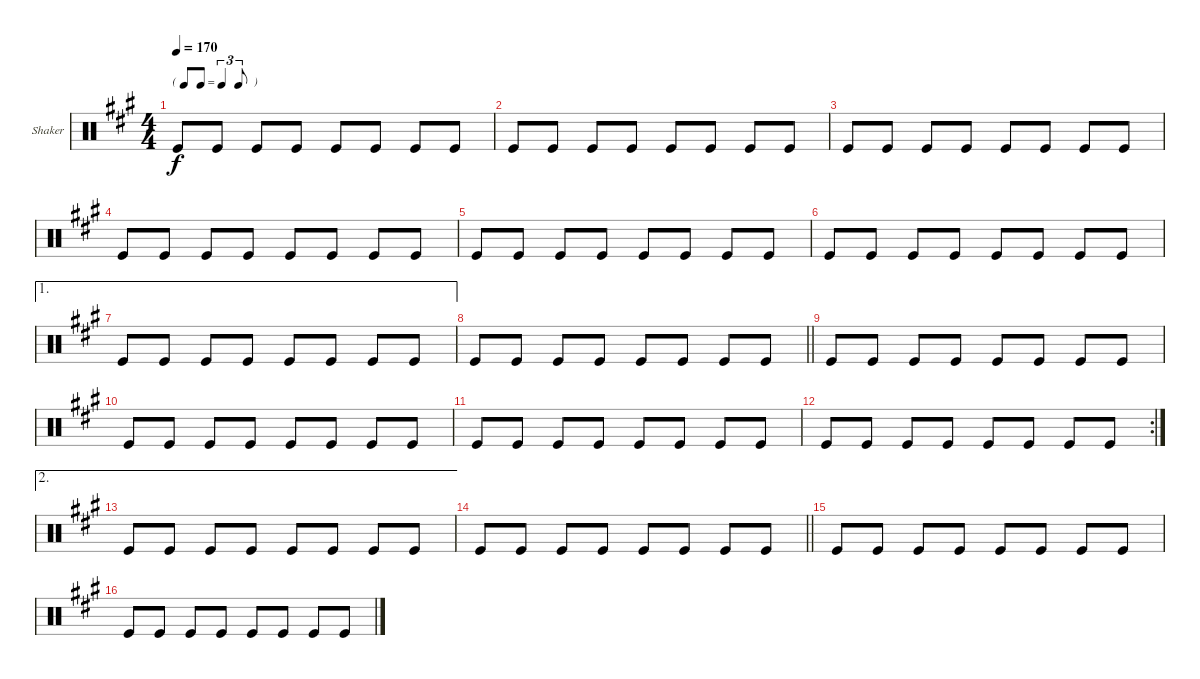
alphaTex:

\bracketExtendMode groupsimilarinstruments
\firstSystemTrackNameOrientation horizontal
\otherSystemsTrackNameOrientation horizontal
\track ("Shaker" "Shaker") {instrument percussion}
\staff {score}
\articulation defaults
\ts (4 4)
\tf triplet8th
\tempo 170
\clef neutral
\scale
0.333333
\ks a "Kick (hit)".8{dy f} "Kick (hit)".8 "Kick (hit)".8 "Kick (hit)".8 "Kick (hit)".8 "Kick (hit)".8 "Kick (hit)".8 "Kick (hit)".8
|
\scale
0.333333 "Kick (hit)".8 "Kick (hit)".8 "Kick (hit)".8 "Kick (hit)".8 "Kick (hit)".8 "Kick (hit)".8 "Kick (hit)".8 "Kick (hit)".8 |
\scale
0.333333 "Kick (hit)".8 "Kick (hit)".8 "Kick (hit)".8 "Kick (hit)".8 "Kick (hit)".8 "Kick (hit)".8 "Kick (hit)".8 "Kick (hit)".8 |
\scale
0.333333 "Kick (hit)".8 "Kick (hit)".8 "Kick (hit)".8 "Kick (hit)".8 "Kick (hit)".8 "Kick (hit)".8 "Kick (hit)".8 "Kick (hit)".8 |
\scale
0.333333 "Kick (hit)".8 "Kick (hit)".8 "Kick (hit)".8 "Kick (hit)".8 "Kick (hit)".8 "Kick (hit)".8 "Kick (hit)".8 "Kick (hit)".8 |
\scale
0.333333 "Kick (hit)".8 "Kick (hit)".8 "Kick (hit)".8 "Kick (hit)".8 "Kick (hit)".8 "Kick (hit)".8 "Kick (hit)".8 "Kick (hit)".8 |
\ae 1
\scale
0.333333 "Kick (hit)".8 "Kick (hit)".8 "Kick (hit)".8 "Kick (hit)".8 "Kick (hit)".8 "Kick (hit)".8 "Kick (hit)".8 "Kick (hit)".8 |
\scale
0.333333
\barLineRight lightlight "Kick (hit)".8 "Kick (hit)".8 "Kick (hit)".8 "Kick (hit)".8 "Kick (hit)".8 "Kick (hit)".8 "Kick (hit)".8 "Kick (hit)".8
|
\scale
0.333333 "Kick (hit)".8 "Kick (hit)".8 "Kick (hit)".8 "Kick (hit)".8 "Kick (hit)".8 "Kick (hit)".8 "Kick (hit)".8 "Kick (hit)".8 |
\scale
0.322034 "Kick (hit)".8 "Kick (hit)".8 "Kick (hit)".8 "Kick (hit)".8 "Kick (hit)".8 "Kick (hit)".8 "Kick (hit)".8 "Kick (hit)".8 |
\scale
0.322034 "Kick (hit)".8 "Kick (hit)".8 "Kick (hit)".8 "Kick (hit)".8 "Kick (hit)".8 "Kick (hit)".8 "Kick (hit)".8 "Kick (hit)".8 |
\rc 2
\scale
0.355932 "Kick (hit)".8 "Kick (hit)".8 "Kick (hit)".8 "Kick (hit)".8 "Kick (hit)".8 "Kick (hit)".8 "Kick (hit)".8 "Kick (hit)".8 |
\ae 2
\scale
0.333333 "Kick (hit)".8 "Kick (hit)".8 "Kick (hit)".8 "Kick (hit)".8 "Kick (hit)".8 "Kick (hit)".8 "Kick (hit)".8 "Kick (hit)".8 |
\scale
0.333333
\barLineRight lightlight "Kick (hit)".8 "Kick (hit)".8 "Kick (hit)".8 "Kick (hit)".8 "Kick (hit)".8 "Kick (hit)".8 "Kick (hit)".8 "Kick (hit)".8
|
\scale
0.333333 "Kick (hit)".8 "Kick (hit)".8 "Kick (hit)".8 "Kick (hit)".8 "Kick (hit)".8 "Kick (hit)".8 "Kick (hit)".8 "Kick (hit)".8 |
\scale
0.333333 "Kick (hit)".8 "Kick (hit)".8 "Kick (hit)".8 "Kick (hit)".8 "Kick (hit)".8 "Kick (hit)".8 "Kick (hit)".8 "Kick (hit)".8
